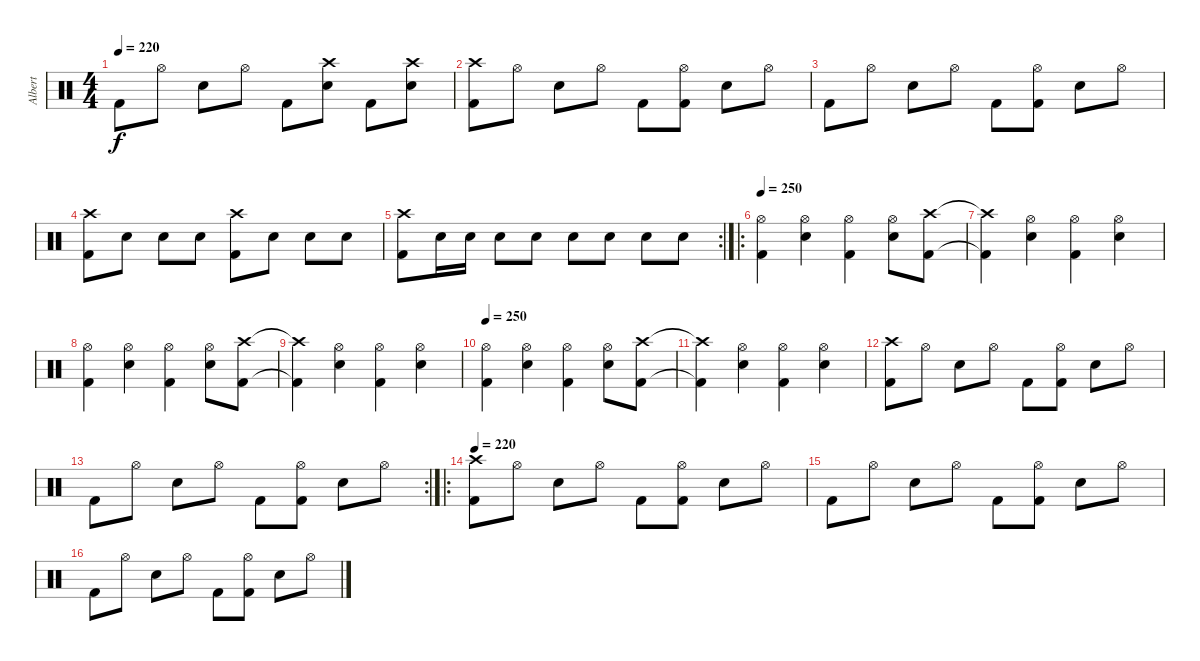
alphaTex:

\track ("Albert" "Albert") {instrument percussion}
\staff {score}
\articulation defaults
\ts (4 4)
\tempo 220
\clef neutral
\ks c "Kick (hit) 2".8{dy f} "Hi-Hat (open)".8 "Electric Snare (hit)".8 "Hi-Hat (open)".8 "Kick (hit) 2".8
("Crash high (hit)" "Electric Snare (hit)").8 "Kick (hit) 2".8 ("Crash high (hit)" "Electric Snare (hit)").8 |
("Crash high (hit)" "Kick (hit) 2").8 "Hi-Hat (open)".8 "Electric Snare (hit)".8 "Hi-Hat (open)".8 "Kick (hit) 2".8 ("Hi-Hat (open)" "Kick (hit) 2").8 "Electric Snare (hit)".8 "Hi-Hat (open)".8 |
"Kick (hit) 2".8 "Hi-Hat (open)".8 "Electric Snare (hit)".8 "Hi-Hat (open)".8 "Kick (hit) 2".8 ("Hi-Hat (open)" "Kick (hit) 2").8 "Electric Snare (hit)".8 "Hi-Hat (open)".8 |
("Crash high (hit)" "Kick (hit) 2").8 "Electric Snare (hit)".8 "Electric Snare (hit)".8 "Electric Snare (hit)".8 ("Crash high (hit)" "Kick (hit) 2").8 "Electric Snare (hit)".8 "Electric Snare (hit)".8 "Electric Snare (hit)".8 |
\rc 2
("Crash high (hit)" "Kick (hit) 2").8 "Electric Snare (hit)".16 "Electric Snare (hit)".16 "Electric Snare (hit)".8 "Electric Snare (hit)".8 "Electric Snare (hit)".8 "Electric Snare (hit)".8 "Electric Snare (hit)".8 "Electric Snare (hit)".8 |
\ro
\tempo 250
("Hi-Hat (open)" "Kick (hit) 2").4 ("Hi-Hat (open)" "Electric Snare (hit)").4 ("Hi-Hat (open)" "Kick (hit) 2").4 ("Hi-Hat (open)" "Electric Snare (hit)").8 ("Crash high (hit)" "Kick (hit) 2").8 |
("Crash high (hit)"{t} "Kick (hit) 2"{t}).4 ("Hi-Hat (open)" "Electric Snare (hit)").4 ("Hi-Hat (open)" "Kick (hit) 2").4 ("Hi-Hat (open)" "Electric Snare (hit)").4 |
("Hi-Hat (open)" "Kick (hit) 2").4 ("Hi-Hat (open)" "Electric Snare (hit)").4 ("Hi-Hat (open)" "Kick (hit) 2").4 ("Hi-Hat (open)" "Electric Snare (hit)").8 ("Crash high (hit)" "Kick (hit) 2").8 |
("Crash high (hit)"{t} "Kick (hit) 2"{t}).4 ("Hi-Hat (open)" "Electric Snare (hit)").4 ("Hi-Hat (open)" "Kick (hit) 2").4 ("Hi-Hat (open)" "Electric Snare (hit)").4 |
\tempo 250
("Hi-Hat (open)" "Kick (hit) 2").4 ("Hi-Hat (open)" "Electric Snare (hit)").4 ("Hi-Hat (open)" "Kick (hit) 2").4 ("Hi-Hat (open)" "Electric Snare (hit)").8 ("Crash high (hit)" "Kick (hit) 2").8 |
("Crash high (hit)"{t} "Kick (hit) 2"{t}).4 ("Hi-Hat (open)" "Electric Snare (hit)").4 ("Hi-Hat (open)" "Kick (hit) 2").4 ("Hi-Hat (open)" "Electric Snare (hit)").4 |
("Crash high (hit)" "Kick (hit) 2").8 "Hi-Hat (open)".8 "Electric Snare (hit)".8 "Hi-Hat (open)".8 "Kick (hit) 2".8 ("Hi-Hat (open)" "Kick (hit) 2").8 "Electric Snare (hit)".8 "Hi-Hat (open)".8 |
\rc 2 "Kick (hit) 2".8 "Hi-Hat (open)".8 "Electric Snare (hit)".8 "Hi-Hat (open)".8 "Kick (hit) 2".8
("Hi-Hat (open)" "Kick (hit) 2").8 "Electric Snare (hit)".8 "Hi-Hat (open)".8 |
\ro
\tempo 220
("Crash high (hit)" "Kick (hit) 2").8 "Hi-Hat (open)".8 "Electric Snare (hit)".8 "Hi-Hat (open)".8 "Kick (hit) 2".8 ("Hi-Hat (open)" "Kick (hit) 2").8 "Electric Snare (hit)".8 "Hi-Hat (open)".8 |
"Kick (hit) 2".8 "Hi-Hat (open)".8 "Electric Snare (hit)".8 "Hi-Hat (open)".8 "Kick (hit) 2".8 ("Hi-Hat (open)" "Kick (hit) 2").8 "Electric Snare (hit)".8 "Hi-Hat (open)".8 |
"Kick (hit) 2".8 "Hi-Hat (open)".8 "Electric Snare (hit)".8 "Hi-Hat (open)".8 "Kick (hit) 2".8 ("Hi-Hat (open)" "Kick (hit) 2").8 "Electric Snare (hit)".8 "Hi-Hat (open)".8
